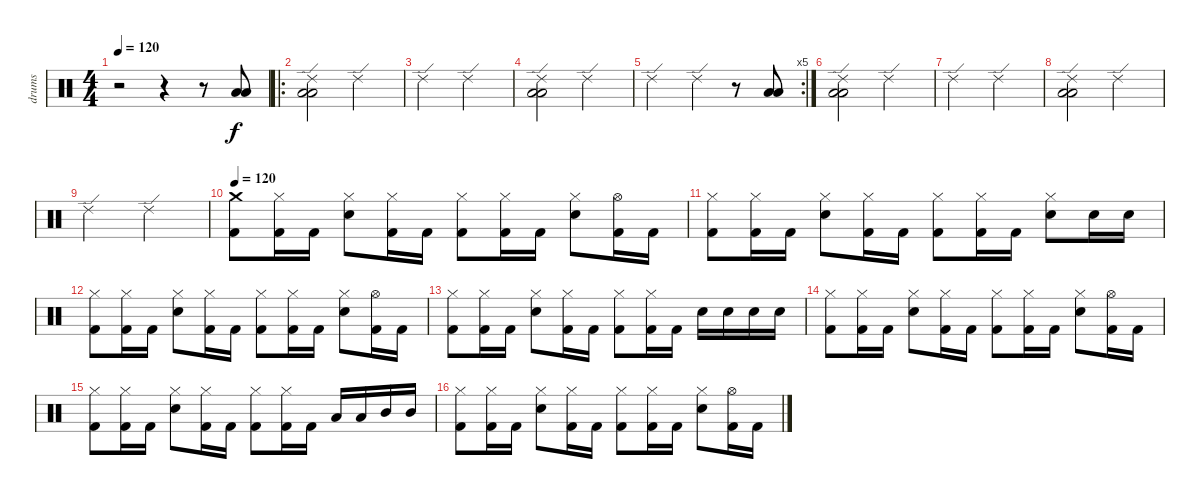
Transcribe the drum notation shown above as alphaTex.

\track ("drums" "drums") {instrument percussion}
\staff {score}
\articulation defaults
\ts (4 4)
\tempo 120
\tempo 105
\tempo 120
\clef neutral
\ks c
r.2{dy f} r.4 r.8 ("Low Floor Tom (hit)" "Low Floor Tom (hit)").8 |
\ro
("Ride (edge) 2" "Low Floor Tom (hit)" "Low Floor Tom (hit)").2 "Ride (edge) 2".2 |
"Ride (edge) 2".2 "Ride (edge) 2".2 |
("Ride (edge) 2" "Low Floor Tom (hit)" "Low Floor Tom (hit)").2 "Ride (edge) 2".2 |
\rc 5 "Ride (edge) 2".2 "Ride (edge) 2".4
r.8 ("Low Floor Tom (hit)" "Low Floor Tom (hit)").8 |
("Ride (edge) 2" "Low Floor Tom (hit)" "Low Floor Tom (hit)").2 "Ride (edge) 2".2 |
"Ride (edge) 2".2 "Ride (edge) 2".2 |
("Ride (edge) 2" "Low Floor Tom (hit)" "Low Floor Tom (hit)").2 "Ride (edge) 2".2 |
"Ride (edge) 2".2 "Ride (edge) 2".2 |
\tempo 120
("Crash medium (hit)" "Kick (hit) 2").8 ("Hi-Hat (closed)" "Kick (hit) 2").16 "Kick (hit) 2".16 ("Hi-Hat (closed)" "Snare (hit) 2").8 ("Hi-Hat (closed)" "Kick (hit) 2").16 "Kick (hit) 2".16 ("Hi-Hat (closed)" "Kick (hit) 2").8 ("Hi-Hat (closed)" "Kick (hit) 2").16 "Kick (hit) 2".16 ("Hi-Hat (closed)" "Snare (hit) 2").8 ("Hi-Hat (open)" "Kick (hit) 2").16 "Kick (hit) 2".16 |
("Hi-Hat (closed)" "Kick (hit) 2").8 ("Hi-Hat (closed)" "Kick (hit) 2").16 "Kick (hit) 2".16 ("Hi-Hat (closed)" "Snare (hit) 2").8 ("Hi-Hat (closed)" "Kick (hit) 2").16 "Kick (hit) 2".16 ("Hi-Hat (closed)" "Kick (hit) 2").8 ("Hi-Hat (closed)" "Kick (hit) 2").16 "Kick (hit) 2".16 ("Hi-Hat (closed)" "Snare (hit) 2").8 "Snare (hit) 2".16 "Snare (hit) 2".16 |
("Hi-Hat (closed)" "Kick (hit) 2").8 ("Hi-Hat (closed)" "Kick (hit) 2").16 "Kick (hit) 2".16 ("Hi-Hat (closed)" "Snare (hit) 2").8 ("Hi-Hat (closed)" "Kick (hit) 2").16 "Kick (hit) 2".16 ("Hi-Hat (closed)" "Kick (hit) 2").8 ("Hi-Hat (closed)" "Kick (hit) 2").16 "Kick (hit) 2".16 ("Hi-Hat (closed)" "Snare (hit) 2").8 ("Hi-Hat (open)" "Kick (hit) 2").16 "Kick (hit) 2".16 |
("Hi-Hat (closed)" "Kick (hit) 2").8 ("Hi-Hat (closed)" "Kick (hit) 2").16 "Kick (hit) 2".16 ("Hi-Hat (closed)" "Snare (hit) 2").8 ("Hi-Hat (closed)" "Kick (hit) 2").16 "Kick (hit) 2".16 ("Hi-Hat (closed)" "Kick (hit) 2").8 ("Hi-Hat (closed)" "Kick (hit) 2").16 "Kick (hit) 2".16 "Snare (hit) 2".16 "Snare (hit) 2".16 "Snare (hit) 2".16 "Snare (hit) 2".16 |
("Hi-Hat (closed)" "Kick (hit) 2").8 ("Hi-Hat (closed)" "Kick (hit) 2").16 "Kick (hit) 2".16 ("Hi-Hat (closed)" "Snare (hit) 2").8 ("Hi-Hat (closed)" "Kick (hit) 2").16 "Kick (hit) 2".16 ("Hi-Hat (closed)" "Kick (hit) 2").8 ("Hi-Hat (closed)" "Kick (hit) 2").16 "Kick (hit) 2".16 ("Hi-Hat (closed)" "Snare (hit) 2").8 ("Hi-Hat (open)" "Kick (hit) 2").16 "Kick (hit) 2".16 |
("Hi-Hat (closed)" "Kick (hit) 2").8 ("Hi-Hat (closed)" "Kick (hit) 2").16 "Kick (hit) 2".16 ("Hi-Hat (closed)" "Snare (hit) 2").8 ("Hi-Hat (closed)" "Kick (hit) 2").16 "Kick (hit) 2".16 ("Hi-Hat (closed)" "Kick (hit) 2").8 ("Hi-Hat (closed)" "Kick (hit) 2").16 "Kick (hit) 2".16 "Low Tom (hit)".16 "Low Tom (hit)".16 "Mid Tom (hit)".16 "Mid Tom (hit)".16 |
("Hi-Hat (closed)" "Kick (hit) 2").8 ("Hi-Hat (closed)" "Kick (hit) 2").16 "Kick (hit) 2".16 ("Hi-Hat (closed)" "Snare (hit) 2").8 ("Hi-Hat (closed)" "Kick (hit) 2").16 "Kick (hit) 2".16 ("Hi-Hat (closed)" "Kick (hit) 2").8 ("Hi-Hat (closed)" "Kick (hit) 2").16 "Kick (hit) 2".16 ("Hi-Hat (closed)" "Snare (hit) 2").8 ("Hi-Hat (open)" "Kick (hit) 2").16 "Kick (hit) 2".16
